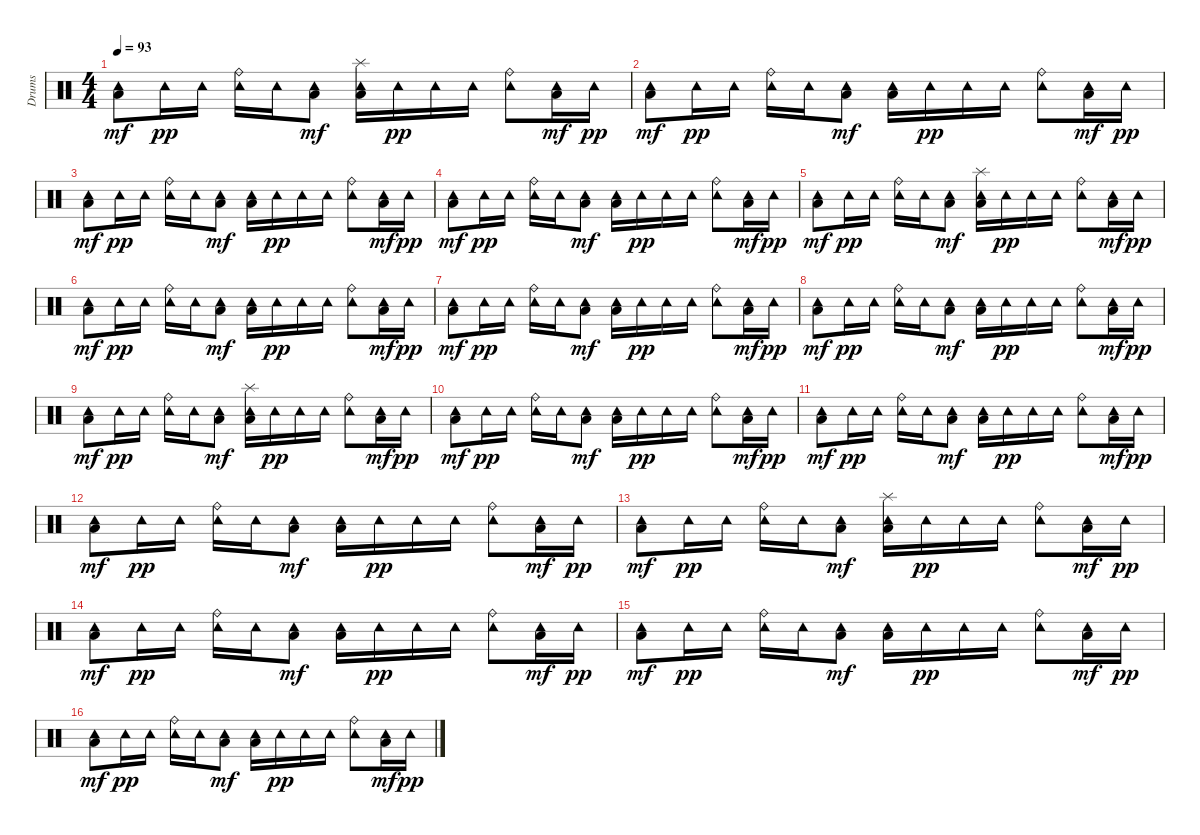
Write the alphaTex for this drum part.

\track ("Drums" "Drums") {instrument percussion}
\staff {score}
\articulation defaults
\ts (4 4)
\tempo 93
\clef neutral
\ks c
("Tambourine (hit)" "Low Floor Tom (hit)").8{dy mf} "Tambourine (hit)".16{dy pp} "Tambourine (hit)".16 ("Tambourine (hit)" "Ride (bell)").16 "Tambourine (hit)".16 ("Tambourine (hit)" "Low Floor Tom (hit)").8{dy mf} ("Tambourine (hit)" "Splash (hit)" "Low Floor Tom (hit)").16 "Tambourine (hit)".16{dy pp} "Tambourine (hit)".16 "Tambourine (hit)".16 ("Tambourine (hit)" "Ride (bell)").8 ("Tambourine (hit)" "Low Floor Tom (hit)").16{dy mf} "Tambourine (hit)".16{dy pp} |
("Tambourine (hit)" "Low Floor Tom (hit)").8{dy mf} "Tambourine (hit)".16{dy pp} "Tambourine (hit)".16 ("Tambourine (hit)" "Ride (bell)").16 "Tambourine (hit)".16 ("Tambourine (hit)" "Low Floor Tom (hit)").8{dy mf} ("Tambourine (hit)" "Low Floor Tom (hit)").16 "Tambourine (hit)".16{dy pp} "Tambourine (hit)".16 "Tambourine (hit)".16 ("Tambourine (hit)" "Ride (bell)").8 ("Tambourine (hit)" "Low Floor Tom (hit)").16{dy mf} "Tambourine (hit)".16{dy pp} |
("Tambourine (hit)" "Low Floor Tom (hit)").8{dy mf} "Tambourine (hit)".16{dy pp} "Tambourine (hit)".16 ("Tambourine (hit)" "Ride (bell)").16 "Tambourine (hit)".16 ("Tambourine (hit)" "Low Floor Tom (hit)").8{dy mf} ("Tambourine (hit)" "Low Floor Tom (hit)").16 "Tambourine (hit)".16{dy pp} "Tambourine (hit)".16 "Tambourine (hit)".16 ("Tambourine (hit)" "Ride (bell)").8 ("Tambourine (hit)" "Low Floor Tom (hit)").16{dy mf} "Tambourine (hit)".16{dy pp} |
("Tambourine (hit)" "Low Floor Tom (hit)").8{dy mf} "Tambourine (hit)".16{dy pp} "Tambourine (hit)".16 ("Tambourine (hit)" "Ride (bell)").16 "Tambourine (hit)".16 ("Tambourine (hit)" "Low Floor Tom (hit)").8{dy mf} ("Tambourine (hit)" "Low Floor Tom (hit)").16 "Tambourine (hit)".16{dy pp} "Tambourine (hit)".16 "Tambourine (hit)".16 ("Tambourine (hit)" "Ride (bell)").8 ("Tambourine (hit)" "Low Floor Tom (hit)").16{dy mf} "Tambourine (hit)".16{dy pp} |
("Tambourine (hit)" "Low Floor Tom (hit)").8{dy mf} "Tambourine (hit)".16{dy pp} "Tambourine (hit)".16 ("Tambourine (hit)" "Ride (bell)").16 "Tambourine (hit)".16 ("Tambourine (hit)" "Low Floor Tom (hit)").8{dy mf} ("Tambourine (hit)" "Splash (hit)" "Low Floor Tom (hit)").16 "Tambourine (hit)".16{dy pp} "Tambourine (hit)".16 "Tambourine (hit)".16 ("Tambourine (hit)" "Ride (bell)").8 ("Tambourine (hit)" "Low Floor Tom (hit)").16{dy mf} "Tambourine (hit)".16{dy pp} |
("Tambourine (hit)" "Low Floor Tom (hit)").8{dy mf} "Tambourine (hit)".16{dy pp} "Tambourine (hit)".16 ("Tambourine (hit)" "Ride (bell)").16 "Tambourine (hit)".16 ("Tambourine (hit)" "Low Floor Tom (hit)").8{dy mf} ("Tambourine (hit)" "Low Floor Tom (hit)").16 "Tambourine (hit)".16{dy pp} "Tambourine (hit)".16 "Tambourine (hit)".16 ("Tambourine (hit)" "Ride (bell)").8 ("Tambourine (hit)" "Low Floor Tom (hit)").16{dy mf} "Tambourine (hit)".16{dy pp} |
("Tambourine (hit)" "Low Floor Tom (hit)").8{dy mf} "Tambourine (hit)".16{dy pp} "Tambourine (hit)".16 ("Tambourine (hit)" "Ride (bell)").16 "Tambourine (hit)".16 ("Tambourine (hit)" "Low Floor Tom (hit)").8{dy mf} ("Tambourine (hit)" "Low Floor Tom (hit)").16 "Tambourine (hit)".16{dy pp} "Tambourine (hit)".16 "Tambourine (hit)".16 ("Tambourine (hit)" "Ride (bell)").8 ("Tambourine (hit)" "Low Floor Tom (hit)").16{dy mf} "Tambourine (hit)".16{dy pp} |
("Tambourine (hit)" "Low Floor Tom (hit)").8{dy mf} "Tambourine (hit)".16{dy pp} "Tambourine (hit)".16 ("Tambourine (hit)" "Ride (bell)").16 "Tambourine (hit)".16 ("Tambourine (hit)" "Low Floor Tom (hit)").8{dy mf} ("Tambourine (hit)" "Low Floor Tom (hit)").16 "Tambourine (hit)".16{dy pp} "Tambourine (hit)".16 "Tambourine (hit)".16 ("Tambourine (hit)" "Ride (bell)").8 ("Tambourine (hit)" "Low Floor Tom (hit)").16{dy mf} "Tambourine (hit)".16{dy pp} |
("Tambourine (hit)" "Low Floor Tom (hit)").8{dy mf} "Tambourine (hit)".16{dy pp} "Tambourine (hit)".16 ("Tambourine (hit)" "Ride (bell)").16 "Tambourine (hit)".16 ("Tambourine (hit)" "Low Floor Tom (hit)").8{dy mf} ("Tambourine (hit)" "Splash (hit)" "Low Floor Tom (hit)").16 "Tambourine (hit)".16{dy pp} "Tambourine (hit)".16 "Tambourine (hit)".16 ("Tambourine (hit)" "Ride (bell)").8 ("Tambourine (hit)" "Low Floor Tom (hit)").16{dy mf} "Tambourine (hit)".16{dy pp} |
("Tambourine (hit)" "Low Floor Tom (hit)").8{dy mf} "Tambourine (hit)".16{dy pp} "Tambourine (hit)".16 ("Tambourine (hit)" "Ride (bell)").16 "Tambourine (hit)".16 ("Tambourine (hit)" "Low Floor Tom (hit)").8{dy mf} ("Tambourine (hit)" "Low Floor Tom (hit)").16 "Tambourine (hit)".16{dy pp} "Tambourine (hit)".16 "Tambourine (hit)".16 ("Tambourine (hit)" "Ride (bell)").8 ("Tambourine (hit)" "Low Floor Tom (hit)").16{dy mf} "Tambourine (hit)".16{dy pp} |
("Tambourine (hit)" "Low Floor Tom (hit)").8{dy mf} "Tambourine (hit)".16{dy pp} "Tambourine (hit)".16 ("Tambourine (hit)" "Ride (bell)").16 "Tambourine (hit)".16 ("Tambourine (hit)" "Low Floor Tom (hit)").8{dy mf} ("Tambourine (hit)" "Low Floor Tom (hit)").16 "Tambourine (hit)".16{dy pp} "Tambourine (hit)".16 "Tambourine (hit)".16 ("Tambourine (hit)" "Ride (bell)").8 ("Tambourine (hit)" "Low Floor Tom (hit)").16{dy mf} "Tambourine (hit)".16{dy pp} |
("Tambourine (hit)" "Low Floor Tom (hit)").8{dy mf} "Tambourine (hit)".16{dy pp} "Tambourine (hit)".16 ("Tambourine (hit)" "Ride (bell)").16 "Tambourine (hit)".16 ("Tambourine (hit)" "Low Floor Tom (hit)").8{dy mf} ("Tambourine (hit)" "Low Floor Tom (hit)").16 "Tambourine (hit)".16{dy pp} "Tambourine (hit)".16 "Tambourine (hit)".16 ("Tambourine (hit)" "Ride (bell)").8 ("Tambourine (hit)" "Low Floor Tom (hit)").16{dy mf} "Tambourine (hit)".16{dy pp} |
("Tambourine (hit)" "Low Floor Tom (hit)").8{dy mf} "Tambourine (hit)".16{dy pp} "Tambourine (hit)".16 ("Tambourine (hit)" "Ride (bell)").16 "Tambourine (hit)".16 ("Tambourine (hit)" "Low Floor Tom (hit)").8{dy mf} ("Tambourine (hit)" "Splash (hit)" "Low Floor Tom (hit)").16 "Tambourine (hit)".16{dy pp} "Tambourine (hit)".16 "Tambourine (hit)".16 ("Tambourine (hit)" "Ride (bell)").8 ("Tambourine (hit)" "Low Floor Tom (hit)").16{dy mf} "Tambourine (hit)".16{dy pp} |
("Tambourine (hit)" "Low Floor Tom (hit)").8{dy mf} "Tambourine (hit)".16{dy pp} "Tambourine (hit)".16 ("Tambourine (hit)" "Ride (bell)").16 "Tambourine (hit)".16 ("Tambourine (hit)" "Low Floor Tom (hit)").8{dy mf} ("Tambourine (hit)" "Low Floor Tom (hit)").16 "Tambourine (hit)".16{dy pp} "Tambourine (hit)".16 "Tambourine (hit)".16 ("Tambourine (hit)" "Ride (bell)").8 ("Tambourine (hit)" "Low Floor Tom (hit)").16{dy mf} "Tambourine (hit)".16{dy pp} |
("Tambourine (hit)" "Low Floor Tom (hit)").8{dy mf} "Tambourine (hit)".16{dy pp} "Tambourine (hit)".16 ("Tambourine (hit)" "Ride (bell)").16 "Tambourine (hit)".16 ("Tambourine (hit)" "Low Floor Tom (hit)").8{dy mf} ("Tambourine (hit)" "Low Floor Tom (hit)").16 "Tambourine (hit)".16{dy pp} "Tambourine (hit)".16 "Tambourine (hit)".16 ("Tambourine (hit)" "Ride (bell)").8 ("Tambourine (hit)" "Low Floor Tom (hit)").16{dy mf} "Tambourine (hit)".16{dy pp} |
("Tambourine (hit)" "Low Floor Tom (hit)").8{dy mf} "Tambourine (hit)".16{dy pp} "Tambourine (hit)".16 ("Tambourine (hit)" "Ride (bell)").16 "Tambourine (hit)".16 ("Tambourine (hit)" "Low Floor Tom (hit)").8{dy mf} ("Tambourine (hit)" "Low Floor Tom (hit)").16 "Tambourine (hit)".16{dy pp} "Tambourine (hit)".16 "Tambourine (hit)".16 ("Tambourine (hit)" "Ride (bell)").8 ("Tambourine (hit)" "Low Floor Tom (hit)").16{dy mf} "Tambourine (hit)".16{dy pp}
